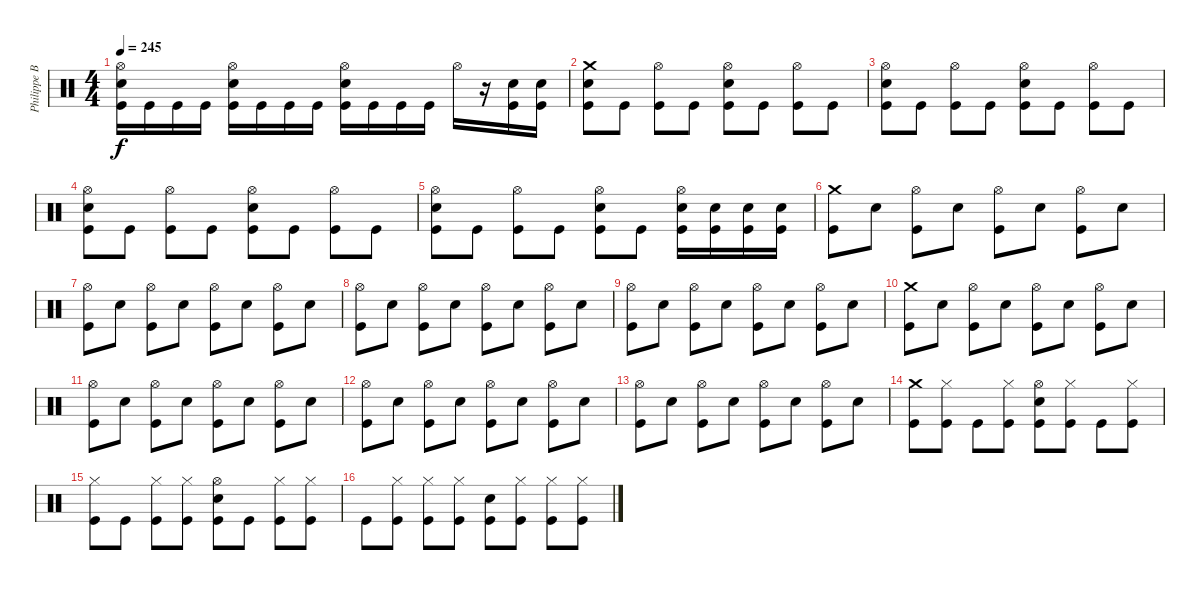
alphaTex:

\track ("Philippe Boucher" "Philippe B") {instrument percussion}
\staff {score}
\articulation defaults
\ts (4 4)
\tempo 245
\clef neutral
\ks c
("Hi-Hat (open)" "Electric Snare (hit)" "Kick (hit)").16{dy f} "Kick (hit)".16 "Kick (hit)".16 "Kick (hit)".16 ("Hi-Hat (open)" "Electric Snare (hit)" "Kick (hit)").16 "Kick (hit)".16 "Kick (hit)".16 "Kick (hit)".16 ("Hi-Hat (open)" "Electric Snare (hit)" "Kick (hit)").16 "Kick (hit)".16 "Kick (hit)".16 "Kick (hit)".16 "Hi-Hat (open)".16 r.16 ("Electric Snare (hit)" "Kick (hit)").16 ("Electric Snare (hit)" "Kick (hit)").16 |
("Crash medium (hit)" "Electric Snare (hit)" "Kick (hit)").8 "Kick (hit)".8 ("Hi-Hat (open)" "Kick (hit)").8 "Kick (hit)".8 ("Hi-Hat (open)" "Electric Snare (hit)" "Kick (hit)").8 "Kick (hit)".8 ("Hi-Hat (open)" "Kick (hit)").8 "Kick (hit)".8 |
("Hi-Hat (open)" "Electric Snare (hit)" "Kick (hit)").8 "Kick (hit)".8 ("Hi-Hat (open)" "Kick (hit)").8 "Kick (hit)".8 ("Hi-Hat (open)" "Electric Snare (hit)" "Kick (hit)").8 "Kick (hit)".8 ("Hi-Hat (open)" "Kick (hit)").8 "Kick (hit)".8 |
("Hi-Hat (open)" "Electric Snare (hit)" "Kick (hit)").8 "Kick (hit)".8 ("Hi-Hat (open)" "Kick (hit)").8 "Kick (hit)".8 ("Hi-Hat (open)" "Electric Snare (hit)" "Kick (hit)").8 "Kick (hit)".8 ("Hi-Hat (open)" "Kick (hit)").8 "Kick (hit)".8 |
("Hi-Hat (open)" "Electric Snare (hit)" "Kick (hit)").8 "Kick (hit)".8 ("Hi-Hat (open)" "Kick (hit)").8 "Kick (hit)".8 ("Hi-Hat (open)" "Electric Snare (hit)" "Kick (hit)").8 "Kick (hit)".8 ("Hi-Hat (open)" "Electric Snare (hit)" "Kick (hit)").16 ("Electric Snare (hit)" "Kick (hit)").16 ("Electric Snare (hit)" "Kick (hit)").16 ("Electric Snare (hit)" "Kick (hit)").16 |
("Crash medium (hit)" "Kick (hit)").8 "Electric Snare (hit)".8 ("Hi-Hat (open)" "Kick (hit)").8 "Electric Snare (hit)".8 ("Hi-Hat (open)" "Kick (hit)").8 "Electric Snare (hit)".8 ("Hi-Hat (open)" "Kick (hit)").8 "Electric Snare (hit)".8 |
("Hi-Hat (open)" "Kick (hit)").8 "Electric Snare (hit)".8 ("Hi-Hat (open)" "Kick (hit)").8 "Electric Snare (hit)".8 ("Hi-Hat (open)" "Kick (hit)").8 "Electric Snare (hit)".8 ("Hi-Hat (open)" "Kick (hit)").8 "Electric Snare (hit)".8 |
("Hi-Hat (open)" "Kick (hit)").8 "Electric Snare (hit)".8 ("Hi-Hat (open)" "Kick (hit)").8 "Electric Snare (hit)".8 ("Hi-Hat (open)" "Kick (hit)").8 "Electric Snare (hit)".8 ("Hi-Hat (open)" "Kick (hit)").8 "Electric Snare (hit)".8 |
("Hi-Hat (open)" "Kick (hit)").8 "Electric Snare (hit)".8 ("Hi-Hat (open)" "Kick (hit)").8 "Electric Snare (hit)".8 ("Hi-Hat (open)" "Kick (hit)").8 "Electric Snare (hit)".8 ("Hi-Hat (open)" "Kick (hit)").8 "Electric Snare (hit)".8 |
("Crash medium (hit)" "Kick (hit)").8 "Electric Snare (hit)".8 ("Hi-Hat (open)" "Kick (hit)").8 "Electric Snare (hit)".8 ("Hi-Hat (open)" "Kick (hit)").8 "Electric Snare (hit)".8 ("Hi-Hat (open)" "Kick (hit)").8 "Electric Snare (hit)".8 |
("Hi-Hat (open)" "Kick (hit)").8 "Electric Snare (hit)".8 ("Hi-Hat (open)" "Kick (hit)").8 "Electric Snare (hit)".8 ("Hi-Hat (open)" "Kick (hit)").8 "Electric Snare (hit)".8 ("Hi-Hat (open)" "Kick (hit)").8 "Electric Snare (hit)".8 |
("Hi-Hat (open)" "Kick (hit)").8 "Electric Snare (hit)".8 ("Hi-Hat (open)" "Kick (hit)").8 "Electric Snare (hit)".8 ("Hi-Hat (open)" "Kick (hit)").8 "Electric Snare (hit)".8 ("Hi-Hat (open)" "Kick (hit)").8 "Electric Snare (hit)".8 |
("Hi-Hat (open)" "Kick (hit)").8 "Electric Snare (hit)".8 ("Hi-Hat (open)" "Kick (hit)").8 "Electric Snare (hit)".8 ("Hi-Hat (open)" "Kick (hit)").8 "Electric Snare (hit)".8 ("Hi-Hat (open)" "Kick (hit)").8 "Electric Snare (hit)".8 |
("Crash medium (hit)" "Kick (hit)").8 ("Hi-Hat (closed)" "Kick (hit)").8 "Kick (hit)".8 ("Hi-Hat (closed)" "Kick (hit)").8 ("Hi-Hat (open)" "Electric Snare (hit)" "Kick (hit)").8 ("Hi-Hat (closed)" "Kick (hit)").8 "Kick (hit)".8 ("Hi-Hat (closed)" "Kick (hit)").8 |
("Hi-Hat (closed)" "Kick (hit)").8 "Kick (hit)".8 ("Hi-Hat (closed)" "Kick (hit)").8 ("Hi-Hat (closed)" "Kick (hit)").8 ("Hi-Hat (open)" "Electric Snare (hit)" "Kick (hit)").8 "Kick (hit)".8 ("Hi-Hat (closed)" "Kick (hit)").8 ("Hi-Hat (closed)" "Kick (hit)").8 |
"Kick (hit)".8 ("Hi-Hat (closed)" "Kick (hit)").8 ("Hi-Hat (closed)" "Kick (hit)").8 ("Hi-Hat (closed)" "Kick (hit)").8 ("Electric Snare (hit)" "Kick (hit)").8 ("Hi-Hat (closed)" "Kick (hit)").8 ("Hi-Hat (closed)" "Kick (hit)").8 ("Hi-Hat (closed)" "Kick (hit)").8
